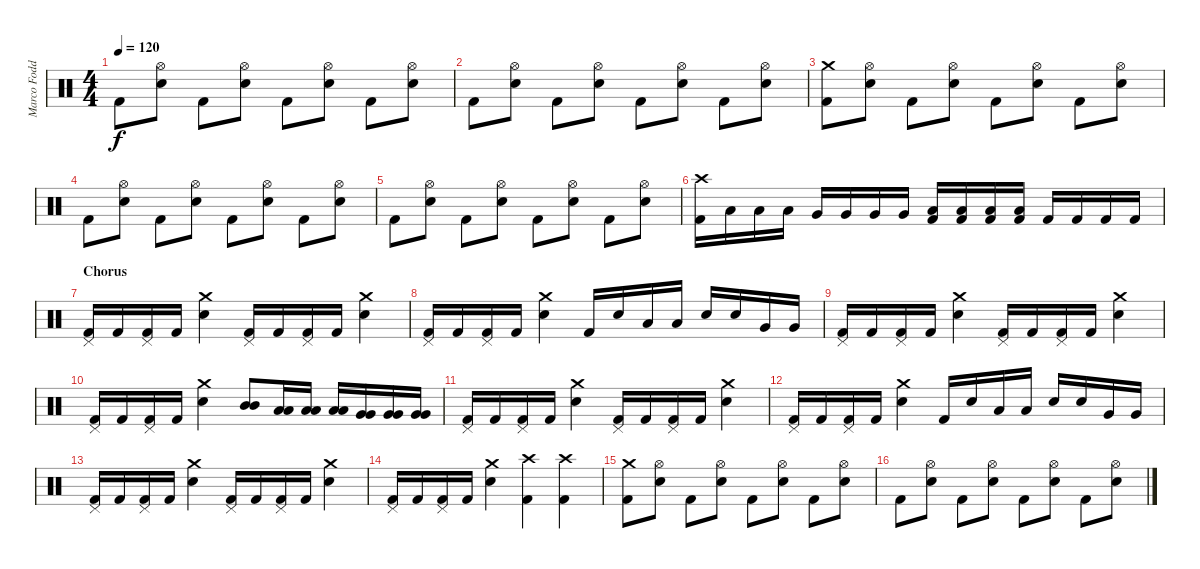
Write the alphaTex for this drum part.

\track ("Marco Foddis " "Marco Fodd") {instrument percussion}
\staff {score}
\articulation defaults
\ts (4 4)
\tempo 120
\clef neutral
\ks c "Kick (hit) 2".8{dy f}
("Hi-Hat (open)" "Electric Snare (hit)").8 "Kick (hit) 2".8 ("Hi-Hat (open)" "Electric Snare (hit)").8 "Kick (hit) 2".8 ("Hi-Hat (open)" "Electric Snare (hit)").8 "Kick (hit) 2".8 ("Hi-Hat (open)" "Electric Snare (hit)").8 |
"Kick (hit) 2".8 ("Hi-Hat (open)" "Electric Snare (hit)").8 "Kick (hit) 2".8 ("Hi-Hat (open)" "Electric Snare (hit)").8 "Kick (hit) 2".8 ("Hi-Hat (open)" "Electric Snare (hit)").8 "Kick (hit) 2".8 ("Hi-Hat (open)" "Electric Snare (hit)").8 |
("Crash medium (hit)" "Kick (hit) 2").8 ("Hi-Hat (open)" "Electric Snare (hit)").8 "Kick (hit) 2".8 ("Hi-Hat (open)" "Electric Snare (hit)").8 "Kick (hit) 2".8 ("Hi-Hat (open)" "Electric Snare (hit)").8 "Kick (hit) 2".8 ("Hi-Hat (open)" "Electric Snare (hit)").8 |
"Kick (hit) 2".8 ("Hi-Hat (open)" "Electric Snare (hit)").8 "Kick (hit) 2".8 ("Hi-Hat (open)" "Electric Snare (hit)").8 "Kick (hit) 2".8 ("Hi-Hat (open)" "Electric Snare (hit)").8 "Kick (hit) 2".8 ("Hi-Hat (open)" "Electric Snare (hit)").8 |
"Kick (hit) 2".8 ("Hi-Hat (open)" "Electric Snare (hit)").8 "Kick (hit) 2".8 ("Hi-Hat (open)" "Electric Snare (hit)").8 "Kick (hit) 2".8 ("Hi-Hat (open)" "Electric Snare (hit)").8 "Kick (hit) 2".8 ("Hi-Hat (open)" "Electric Snare (hit)").8 |
("Crash high (hit)" "Kick (hit) 2").16 "Low Tom (hit)".16 "Low Tom (hit)".16 "Low Tom (hit)".16 "Very Low Tom (hit)".16 "Very Low Tom (hit)".16 "Very Low Tom (hit)".16 "Very Low Tom (hit)".16 ("Low Floor Tom (hit)" "Kick (hit) 2").16 ("Low Floor Tom (hit)" "Kick (hit) 2").16 ("Low Floor Tom (hit)" "Kick (hit) 2").16 ("Low Floor Tom (hit)" "Kick (hit) 2").16 "Kick (hit) 2".16 "Kick (hit) 2".16 "Kick (hit) 2".16 "Kick (hit) 2".16 |
\section ("" "Chorus")
("Pedal Hi-Hat (hit)" "Kick (hit) 2").16 "Kick (hit) 2".16 ("Pedal Hi-Hat (hit)" "Kick (hit) 2").16 "Kick (hit) 2".16 ("Crash medium (hit)" "Electric Snare (hit)").4 ("Pedal Hi-Hat (hit)" "Kick (hit) 2").16 "Kick (hit) 2".16 ("Pedal Hi-Hat (hit)" "Kick (hit) 2").16 "Kick (hit) 2".16 ("Crash medium (hit)" "Electric Snare (hit)").4 |
("Pedal Hi-Hat (hit)" "Kick (hit) 2").16 "Kick (hit) 2".16 ("Pedal Hi-Hat (hit)" "Kick (hit) 2").16 "Kick (hit) 2".16 ("Crash medium (hit)" "Electric Snare (hit)").4 "Kick (hit) 2".16 "Electric Snare (hit)".16 "Low Tom (hit)".16 "Low Tom (hit)".16 "Electric Snare (hit)".16 "Electric Snare (hit)".16 "Very Low Tom (hit)".16 "Very Low Tom (hit)".16 |
("Pedal Hi-Hat (hit)" "Kick (hit) 2").16 "Kick (hit) 2".16 ("Pedal Hi-Hat (hit)" "Kick (hit) 2").16 "Kick (hit) 2".16 ("Crash medium (hit)" "Electric Snare (hit)").4 ("Pedal Hi-Hat (hit)" "Kick (hit) 2").16 "Kick (hit) 2".16 ("Pedal Hi-Hat (hit)" "Kick (hit) 2").16 "Kick (hit) 2".16 ("Crash medium (hit)" "Electric Snare (hit)").4 |
("Pedal Hi-Hat (hit)" "Kick (hit) 2").16 "Kick (hit) 2".16 ("Pedal Hi-Hat (hit)" "Kick (hit) 2").16 "Kick (hit) 2".16 ("Crash medium (hit)" "Electric Snare (hit)").4 ("Mid Tom (hit)" "Mid Tom (hit)").8 ("Low Tom (hit)" "Low Tom (hit)").16 ("Low Tom (hit)" "Low Tom (hit)").16 ("Low Tom (hit)" "Low Tom (hit)").16 ("Very Low Tom (hit)" "Very Low Tom (hit)").16 ("Very Low Tom (hit)" "Very Low Tom (hit)").16 ("Very Low Tom (hit)" "Very Low Tom (hit)").16 |
("Pedal Hi-Hat (hit)" "Kick (hit) 2").16 "Kick (hit) 2".16 ("Pedal Hi-Hat (hit)" "Kick (hit) 2").16 "Kick (hit) 2".16 ("Crash medium (hit)" "Electric Snare (hit)").4 ("Pedal Hi-Hat (hit)" "Kick (hit) 2").16 "Kick (hit) 2".16 ("Pedal Hi-Hat (hit)" "Kick (hit) 2").16 "Kick (hit) 2".16 ("Crash medium (hit)" "Electric Snare (hit)").4 |
("Pedal Hi-Hat (hit)" "Kick (hit) 2").16 "Kick (hit) 2".16 ("Pedal Hi-Hat (hit)" "Kick (hit) 2").16 "Kick (hit) 2".16 ("Crash medium (hit)" "Electric Snare (hit)").4 "Kick (hit) 2".16 "Electric Snare (hit)".16 "Low Tom (hit)".16 "Low Tom (hit)".16 "Electric Snare (hit)".16 "Electric Snare (hit)".16 "Very Low Tom (hit)".16 "Very Low Tom (hit)".16 |
("Pedal Hi-Hat (hit)" "Kick (hit) 2").16 "Kick (hit) 2".16 ("Pedal Hi-Hat (hit)" "Kick (hit) 2").16 "Kick (hit) 2".16 ("Crash medium (hit)" "Electric Snare (hit)").4 ("Pedal Hi-Hat (hit)" "Kick (hit) 2").16 "Kick (hit) 2".16 ("Pedal Hi-Hat (hit)" "Kick (hit) 2").16 "Kick (hit) 2".16 ("Crash medium (hit)" "Electric Snare (hit)").4 |
("Pedal Hi-Hat (hit)" "Kick (hit) 2").16 "Kick (hit) 2".16 ("Pedal Hi-Hat (hit)" "Kick (hit) 2").16 "Kick (hit) 2".16 ("Crash medium (hit)" "Electric Snare (hit)").4 ("Crash high (hit)" "Kick (hit) 2").4 ("Crash high (hit)" "Kick (hit) 2").4 |
("Crash medium (hit)" "Kick (hit) 2").8 ("Hi-Hat (open)" "Electric Snare (hit)").8 "Kick (hit) 2".8 ("Hi-Hat (open)" "Electric Snare (hit)").8 "Kick (hit) 2".8 ("Hi-Hat (open)" "Electric Snare (hit)").8 "Kick (hit) 2".8 ("Hi-Hat (open)" "Electric Snare (hit)").8 |
"Kick (hit) 2".8 ("Hi-Hat (open)" "Electric Snare (hit)").8 "Kick (hit) 2".8 ("Hi-Hat (open)" "Electric Snare (hit)").8 "Kick (hit) 2".8 ("Hi-Hat (open)" "Electric Snare (hit)").8 "Kick (hit) 2".8 ("Hi-Hat (open)" "Electric Snare (hit)").8
